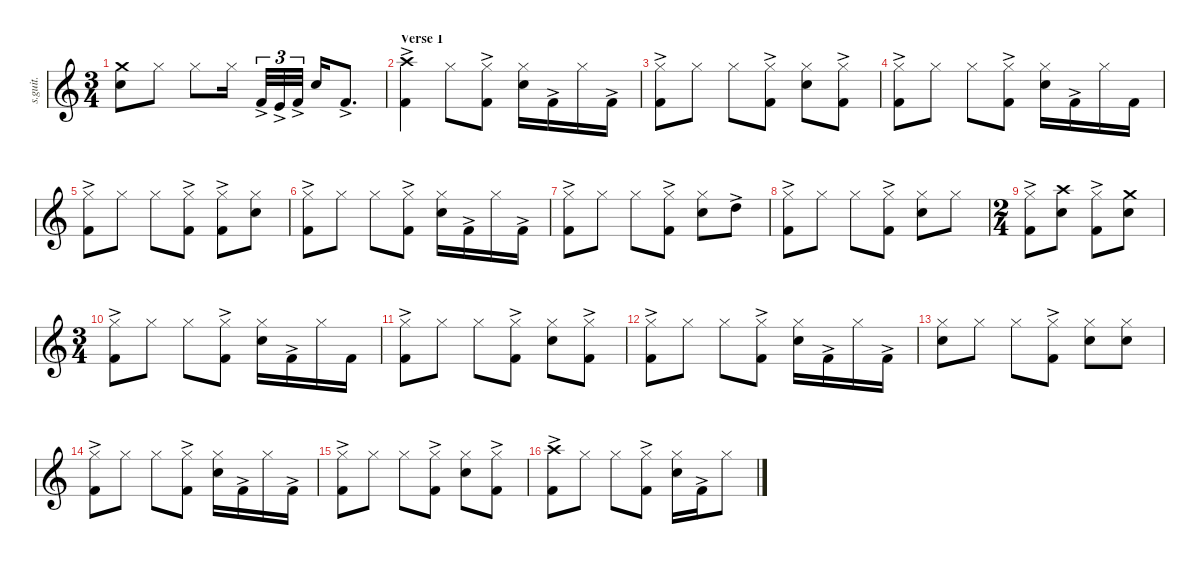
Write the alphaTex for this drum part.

\defaultSystemsLayout 4
\hideDynamics
\bracketExtendMode nobrackets
\track ("Lars Ulrich - Drums" "s.guit.") {instrument percussion}
\staff {score}
\articulation defaults
\ts (3 4)
\tempo (103 hide)
\clef g2
\ks c
("Crash medium (hit)" "Snare (hit) 2").8{lyrics (0 "") lyrics (1 "") lyrics (2 "") lyrics (3 "") lyrics (4 "") dy f} "Hi-Hat (closed)".8{lyrics (0 "") lyrics (1 "") lyrics (2 "") lyrics (3 "") lyrics (4 "")} "Hi-Hat (closed)".8{lyrics (0 "") lyrics (1 "") lyrics (2 "") lyrics (3 "") lyrics (4 "")} "Hi-Hat (closed)".16{lyrics (0 "") lyrics (1 "") lyrics (2 "") lyrics (3 "") lyrics (4 "")} "Kick (hit) 2"{ac}.32{tu (3 2) lyrics (0 "") lyrics (1 "") lyrics (2 "") lyrics (3 "") lyrics (4 "") dy mp} "Kick (hit)"{ac}.32{tu (3 2) lyrics (0 "") lyrics (1 "") lyrics (2 "") lyrics (3 "") lyrics (4 "") dy mf} "Kick (hit) 2"{ac}.32{tu (3 2) lyrics (0 "") lyrics (1 "") lyrics (2 "") lyrics (3 "") lyrics (4 "") dy mp} "Snare (hit) 2".16{lyrics (0 "") lyrics (1 "") lyrics (2 "") lyrics (3 "") lyrics (4 "") dy f} "Kick (hit) 2"{ac}.8{d lyrics (0 "") lyrics (1 "") lyrics (2 "") lyrics (3 "") lyrics (4 "") dy mp} |
\section ("" "Verse 1")
("Crash high (hit)" "Kick (hit) 2"{ac}).4{lyrics (0 "") lyrics (1 "") lyrics (2 "") lyrics (3 "") lyrics (4 "") dy f} "Hi-Hat (closed)".8{lyrics (0 "") lyrics (1 "") lyrics (2 "") lyrics (3 "") lyrics (4 "")} ("Hi-Hat (closed)" "Kick (hit) 2"{ac}).8{lyrics (0 "") lyrics (1 "") lyrics (2 "") lyrics (3 "") lyrics (4 "")} ("Hi-Hat (closed)" "Snare (hit) 2").16{lyrics (0 "") lyrics (1 "") lyrics (2 "") lyrics (3 "") lyrics (4 "")} "Kick (hit) 2"{ac}.16{lyrics (0 "") lyrics (1 "") lyrics (2 "") lyrics (3 "") lyrics (4 "") dy mp} "Hi-Hat (closed)".16{lyrics (0 "") lyrics (1 "") lyrics (2 "") lyrics (3 "") lyrics (4 "") dy f} "Kick (hit) 2"{ac}.16{lyrics (0 "") lyrics (1 "") lyrics (2 "") lyrics (3 "") lyrics (4 "") dy mp} |
("Hi-Hat (closed)" "Kick (hit) 2"{ac}).8{lyrics (0 "") lyrics (1 "") lyrics (2 "") lyrics (3 "") lyrics (4 "") dy f} "Hi-Hat (closed)".8{lyrics (0 "") lyrics (1 "") lyrics (2 "") lyrics (3 "") lyrics (4 "")} "Hi-Hat (closed)".8{lyrics (0 "") lyrics (1 "") lyrics (2 "") lyrics (3 "") lyrics (4 "")} ("Hi-Hat (closed)" "Kick (hit) 2"{ac}).8{lyrics (0 "") lyrics (1 "") lyrics (2 "") lyrics (3 "") lyrics (4 "")} ("Hi-Hat (closed)" "Snare (hit) 2").8{lyrics (0 "") lyrics (1 "") lyrics (2 "") lyrics (3 "") lyrics (4 "")} ("Hi-Hat (closed)" "Kick (hit) 2"{ac}).8{lyrics (0 "") lyrics (1 "") lyrics (2 "") lyrics (3 "") lyrics (4 "")} |
("Hi-Hat (closed)" "Kick (hit) 2"{ac}).8{lyrics (0 "") lyrics (1 "") lyrics (2 "") lyrics (3 "") lyrics (4 "")} "Hi-Hat (closed)".8{lyrics (0 "") lyrics (1 "") lyrics (2 "") lyrics (3 "") lyrics (4 "")} "Hi-Hat (closed)".8{lyrics (0 "") lyrics (1 "") lyrics (2 "") lyrics (3 "") lyrics (4 "")} ("Hi-Hat (closed)" "Kick (hit) 2"{ac}).8{lyrics (0 "") lyrics (1 "") lyrics (2 "") lyrics (3 "") lyrics (4 "")} ("Hi-Hat (closed)" "Snare (hit) 2").16{lyrics (0 "") lyrics (1 "") lyrics (2 "") lyrics (3 "") lyrics (4 "")} "Kick (hit) 2"{ac}.16{lyrics (0 "") lyrics (1 "") lyrics (2 "") lyrics (3 "") lyrics (4 "") dy mp} "Hi-Hat (closed)".16{lyrics (0 "") lyrics (1 "") lyrics (2 "") lyrics (3 "") lyrics (4 "") dy f} "Kick (hit) 2".16{lyrics (0 "") lyrics (1 "") lyrics (2 "") lyrics (3 "") lyrics (4 "")} |
("Hi-Hat (closed)" "Kick (hit) 2"{ac}).8{lyrics (0 "") lyrics (1 "") lyrics (2 "") lyrics (3 "") lyrics (4 "")} "Hi-Hat (closed)".8{lyrics (0 "") lyrics (1 "") lyrics (2 "") lyrics (3 "") lyrics (4 "")} "Hi-Hat (closed)".8{lyrics (0 "") lyrics (1 "") lyrics (2 "") lyrics (3 "") lyrics (4 "")} ("Hi-Hat (closed)" "Kick (hit) 2"{ac}).8{lyrics (0 "") lyrics (1 "") lyrics (2 "") lyrics (3 "") lyrics (4 "")} ("Hi-Hat (closed)" "Kick (hit) 2"{ac}).8{lyrics (0 "") lyrics (1 "") lyrics (2 "") lyrics (3 "") lyrics (4 "")} ("Hi-Hat (closed)" "Snare (hit) 2").8{lyrics (0 "") lyrics (1 "") lyrics (2 "") lyrics (3 "") lyrics (4 "")} |
("Hi-Hat (closed)" "Kick (hit) 2"{ac}).8{lyrics (0 "") lyrics (1 "") lyrics (2 "") lyrics (3 "") lyrics (4 "")} "Hi-Hat (closed)".8{lyrics (0 "") lyrics (1 "") lyrics (2 "") lyrics (3 "") lyrics (4 "")} "Hi-Hat (closed)".8{lyrics (0 "") lyrics (1 "") lyrics (2 "") lyrics (3 "") lyrics (4 "")} ("Hi-Hat (closed)" "Kick (hit) 2"{ac}).8{lyrics (0 "") lyrics (1 "") lyrics (2 "") lyrics (3 "") lyrics (4 "")} ("Hi-Hat (closed)" "Snare (hit) 2").16{lyrics (0 "") lyrics (1 "") lyrics (2 "") lyrics (3 "") lyrics (4 "")} "Kick (hit) 2"{ac}.16{lyrics (0 "") lyrics (1 "") lyrics (2 "") lyrics (3 "") lyrics (4 "") dy mp} "Hi-Hat (closed)".16{lyrics (0 "") lyrics (1 "") lyrics (2 "") lyrics (3 "") lyrics (4 "") dy f} "Kick (hit) 2"{ac}.16{lyrics (0 "") lyrics (1 "") lyrics (2 "") lyrics (3 "") lyrics (4 "") dy mp} |
("Hi-Hat (closed)" "Kick (hit) 2"{ac}).8{lyrics (0 "") lyrics (1 "") lyrics (2 "") lyrics (3 "") lyrics (4 "") dy f} "Hi-Hat (closed)".8{lyrics (0 "") lyrics (1 "") lyrics (2 "") lyrics (3 "") lyrics (4 "")} "Hi-Hat (closed)".8{lyrics (0 "") lyrics (1 "") lyrics (2 "") lyrics (3 "") lyrics (4 "")} ("Hi-Hat (closed)" "Kick (hit) 2"{ac}).8{lyrics (0 "") lyrics (1 "") lyrics (2 "") lyrics (3 "") lyrics (4 "")} ("Hi-Hat (closed)" "Snare (hit) 2").8{lyrics (0 "") lyrics (1 "") lyrics (2 "") lyrics (3 "") lyrics (4 "")} "High Tom (hit)"{ac}.8{lyrics (0 "") lyrics (1 "") lyrics (2 "") lyrics (3 "") lyrics (4 "") dy mp} |
("Hi-Hat (closed)" "Kick (hit) 2"{ac}).8{lyrics (0 "") lyrics (1 "") lyrics (2 "") lyrics (3 "") lyrics (4 "") dy f} "Hi-Hat (closed)".8{lyrics (0 "") lyrics (1 "") lyrics (2 "") lyrics (3 "") lyrics (4 "")} "Hi-Hat (closed)".8{lyrics (0 "") lyrics (1 "") lyrics (2 "") lyrics (3 "") lyrics (4 "")} ("Hi-Hat (closed)" "Kick (hit) 2"{ac}).8{lyrics (0 "") lyrics (1 "") lyrics (2 "") lyrics (3 "") lyrics (4 "")} ("Hi-Hat (closed)" "Snare (hit) 2").8{lyrics (0 "") lyrics (1 "") lyrics (2 "") lyrics (3 "") lyrics (4 "")} "Hi-Hat (closed)".8{lyrics (0 "") lyrics (1 "") lyrics (2 "") lyrics (3 "") lyrics (4 "")} |
\ts (2 4)
\beaming (8 2 2 2 2)
("Hi-Hat (closed)" "Kick (hit) 2"{ac}).8{lyrics (0 "") lyrics (1 "") lyrics (2 "") lyrics (3 "") lyrics (4 "")} ("Crash high (hit)" "Snare (hit) 2").8{lyrics (0 "") lyrics (1 "") lyrics (2 "") lyrics (3 "") lyrics (4 "")} ("Hi-Hat (closed)" "Kick (hit) 2"{ac}).8{lyrics (0 "") lyrics (1 "") lyrics (2 "") lyrics (3 "") lyrics (4 "")} ("Crash medium (hit)" "Snare (hit) 2").8{lyrics (0 "") lyrics (1 "") lyrics (2 "") lyrics (3 "") lyrics (4 "")} |
\ts (3 4)
\beaming (8 2 2 2 2)
("Hi-Hat (closed)" "Kick (hit) 2"{ac}).8{lyrics (0 "") lyrics (1 "") lyrics (2 "") lyrics (3 "") lyrics (4 "")} "Hi-Hat (closed)".8{lyrics (0 "") lyrics (1 "") lyrics (2 "") lyrics (3 "") lyrics (4 "")} "Hi-Hat (closed)".8{lyrics (0 "") lyrics (1 "") lyrics (2 "") lyrics (3 "") lyrics (4 "")} ("Hi-Hat (closed)" "Kick (hit) 2"{ac}).8{lyrics (0 "") lyrics (1 "") lyrics (2 "") lyrics (3 "") lyrics (4 "")} ("Hi-Hat (closed)" "Snare (hit) 2").16{lyrics (0 "") lyrics (1 "") lyrics (2 "") lyrics (3 "") lyrics (4 "")} "Kick (hit) 2"{ac}.16{lyrics (0 "") lyrics (1 "") lyrics (2 "") lyrics (3 "") lyrics (4 "") dy mp} "Hi-Hat (closed)".16{lyrics (0 "") lyrics (1 "") lyrics (2 "") lyrics (3 "") lyrics (4 "") dy f} "Kick (hit) 2".16{lyrics (0 "") lyrics (1 "") lyrics (2 "") lyrics (3 "") lyrics (4 "")} |
("Hi-Hat (closed)" "Kick (hit) 2"{ac}).8{lyrics (0 "") lyrics (1 "") lyrics (2 "") lyrics (3 "") lyrics (4 "")} "Hi-Hat (closed)".8{lyrics (0 "") lyrics (1 "") lyrics (2 "") lyrics (3 "") lyrics (4 "")} "Hi-Hat (closed)".8{lyrics (0 "") lyrics (1 "") lyrics (2 "") lyrics (3 "") lyrics (4 "")} ("Hi-Hat (closed)" "Kick (hit) 2"{ac}).8{lyrics (0 "") lyrics (1 "") lyrics (2 "") lyrics (3 "") lyrics (4 "")} ("Hi-Hat (closed)" "Snare (hit) 2").8{lyrics (0 "") lyrics (1 "") lyrics (2 "") lyrics (3 "") lyrics (4 "")} ("Hi-Hat (closed)" "Kick (hit) 2"{ac}).8{lyrics (0 "") lyrics (1 "") lyrics (2 "") lyrics (3 "") lyrics (4 "")} |
("Hi-Hat (closed)" "Kick (hit) 2"{ac}).8{lyrics (0 "") lyrics (1 "") lyrics (2 "") lyrics (3 "") lyrics (4 "")} "Hi-Hat (closed)".8{lyrics (0 "") lyrics (1 "") lyrics (2 "") lyrics (3 "") lyrics (4 "")} "Hi-Hat (closed)".8{lyrics (0 "") lyrics (1 "") lyrics (2 "") lyrics (3 "") lyrics (4 "")} ("Hi-Hat (closed)" "Kick (hit) 2"{ac}).8{lyrics (0 "") lyrics (1 "") lyrics (2 "") lyrics (3 "") lyrics (4 "")} ("Hi-Hat (closed)" "Snare (hit) 2").16{lyrics (0 "") lyrics (1 "") lyrics (2 "") lyrics (3 "") lyrics (4 "")} "Kick (hit) 2"{ac}.16{lyrics (0 "") lyrics (1 "") lyrics (2 "") lyrics (3 "") lyrics (4 "") dy mp} "Hi-Hat (closed)".16{lyrics (0 "") lyrics (1 "") lyrics (2 "") lyrics (3 "") lyrics (4 "") dy f} "Kick (hit) 2"{ac}.16{lyrics (0 "") lyrics (1 "") lyrics (2 "") lyrics (3 "") lyrics (4 "") dy mp} |
("Hi-Hat (closed)" "Snare (hit) 2").8{lyrics (0 "") lyrics (1 "") lyrics (2 "") lyrics (3 "") lyrics (4 "") dy f} "Hi-Hat (closed)".8{lyrics (0 "") lyrics (1 "") lyrics (2 "") lyrics (3 "") lyrics (4 "")} "Hi-Hat (closed)".8{lyrics (0 "") lyrics (1 "") lyrics (2 "") lyrics (3 "") lyrics (4 "")} ("Hi-Hat (closed)" "Kick (hit) 2"{ac}).8{lyrics (0 "") lyrics (1 "") lyrics (2 "") lyrics (3 "") lyrics (4 "")} ("Hi-Hat (closed)" "Snare (hit) 2").8{lyrics (0 "") lyrics (1 "") lyrics (2 "") lyrics (3 "") lyrics (4 "")} ("Hi-Hat (closed)" "Snare (hit) 2").8{lyrics (0 "") lyrics (1 "") lyrics (2 "") lyrics (3 "") lyrics (4 "")} |
("Hi-Hat (closed)" "Kick (hit) 2"{ac}).8{lyrics (0 "") lyrics (1 "") lyrics (2 "") lyrics (3 "") lyrics (4 "")} "Hi-Hat (closed)".8{lyrics (0 "") lyrics (1 "") lyrics (2 "") lyrics (3 "") lyrics (4 "")} "Hi-Hat (closed)".8{lyrics (0 "") lyrics (1 "") lyrics (2 "") lyrics (3 "") lyrics (4 "")} ("Hi-Hat (closed)" "Kick (hit) 2"{ac}).8{lyrics (0 "") lyrics (1 "") lyrics (2 "") lyrics (3 "") lyrics (4 "")} ("Hi-Hat (closed)" "Snare (hit) 2").16{lyrics (0 "") lyrics (1 "") lyrics (2 "") lyrics (3 "") lyrics (4 "")} "Kick (hit) 2"{ac}.16{lyrics (0 "") lyrics (1 "") lyrics (2 "") lyrics (3 "") lyrics (4 "") dy mp} "Hi-Hat (closed)".16{lyrics (0 "") lyrics (1 "") lyrics (2 "") lyrics (3 "") lyrics (4 "") dy f} "Kick (hit) 2"{ac}.16{lyrics (0 "") lyrics (1 "") lyrics (2 "") lyrics (3 "") lyrics (4 "") dy mp} |
("Hi-Hat (closed)" "Kick (hit) 2"{ac}).8{lyrics (0 "") lyrics (1 "") lyrics (2 "") lyrics (3 "") lyrics (4 "") dy f} "Hi-Hat (closed)".8{lyrics (0 "") lyrics (1 "") lyrics (2 "") lyrics (3 "") lyrics (4 "")} "Hi-Hat (closed)".8{lyrics (0 "") lyrics (1 "") lyrics (2 "") lyrics (3 "") lyrics (4 "")} ("Hi-Hat (closed)" "Kick (hit) 2"{ac}).8{lyrics (0 "") lyrics (1 "") lyrics (2 "") lyrics (3 "") lyrics (4 "")} ("Hi-Hat (closed)" "Snare (hit) 2").8{lyrics (0 "") lyrics (1 "") lyrics (2 "") lyrics (3 "") lyrics (4 "")} ("Hi-Hat (closed)" "Kick (hit) 2"{ac}).8{lyrics (0 "") lyrics (1 "") lyrics (2 "") lyrics (3 "") lyrics (4 "")} |
("Crash high (hit)" "Kick (hit) 2"{ac}).8{lyrics (0 "") lyrics (1 "") lyrics (2 "") lyrics (3 "") lyrics (4 "")} "Hi-Hat (closed)".8{lyrics (0 "") lyrics (1 "") lyrics (2 "") lyrics (3 "") lyrics (4 "")} "Hi-Hat (closed)".8{lyrics (0 "") lyrics (1 "") lyrics (2 "") lyrics (3 "") lyrics (4 "")} ("Hi-Hat (closed)" "Kick (hit) 2"{ac}).8{lyrics (0 "") lyrics (1 "") lyrics (2 "") lyrics (3 "") lyrics (4 "")} ("Hi-Hat (closed)" "Snare (hit) 2").16{lyrics (0 "") lyrics (1 "") lyrics (2 "") lyrics (3 "") lyrics (4 "")} "Kick (hit) 2"{ac}.16{lyrics (0 "") lyrics (1 "") lyrics (2 "") lyrics (3 "") lyrics (4 "") dy mp} "Hi-Hat (closed)".8{lyrics (0 "") lyrics (1 "") lyrics (2 "") lyrics (3 "") lyrics (4 "") dy f}
